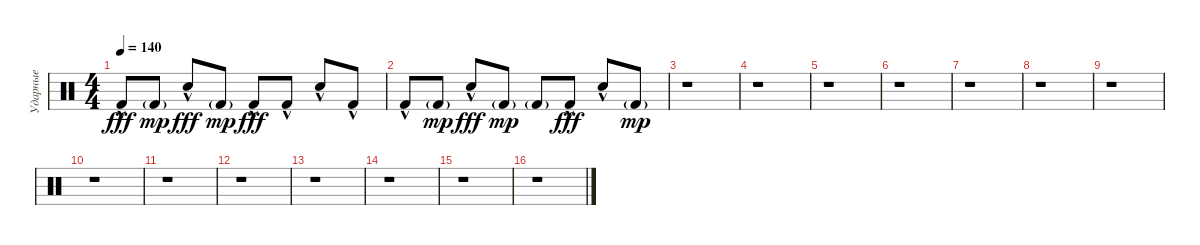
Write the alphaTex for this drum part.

\track ("Ударные" "Ударные") {instrument percussion}
\staff {score}
\articulation defaults
\ts (4 4)
\tempo 140
\clef neutral
\ks c "Kick (hit) 2"{hac}.8{dy fff} "Kick (hit) 2"{g}.8{dy mp} "Snare (hit) 2"{hac}.8{dy fff} "Kick (hit) 2"{g}.8{dy mp} "Kick (hit) 2"{hac}.8{dy fff} "Kick (hit) 2"{hac}.8 "Snare (hit) 2"{hac}.8 "Kick (hit) 2"{hac}.8
|
"Kick (hit) 2"{hac}.8 "Kick (hit) 2"{g}.8{dy mp} "Snare (hit) 2"{hac}.8{dy fff} "Kick (hit) 2"{g}.8{dy mp} "Kick (hit) 2"{g}.8 "Kick (hit) 2"{hac}.8{dy fff} "Snare (hit) 2"{hac}.8 "Kick (hit) 2"{g}.8{dy mp} |
r.1 |
r.1 |
r.1 |
r.1 |
r.1 |
r.1 |
r.1 |
r.1 |
r.1 |
r.1 |
r.1 |
r.1 |
r.1 |
r.1
